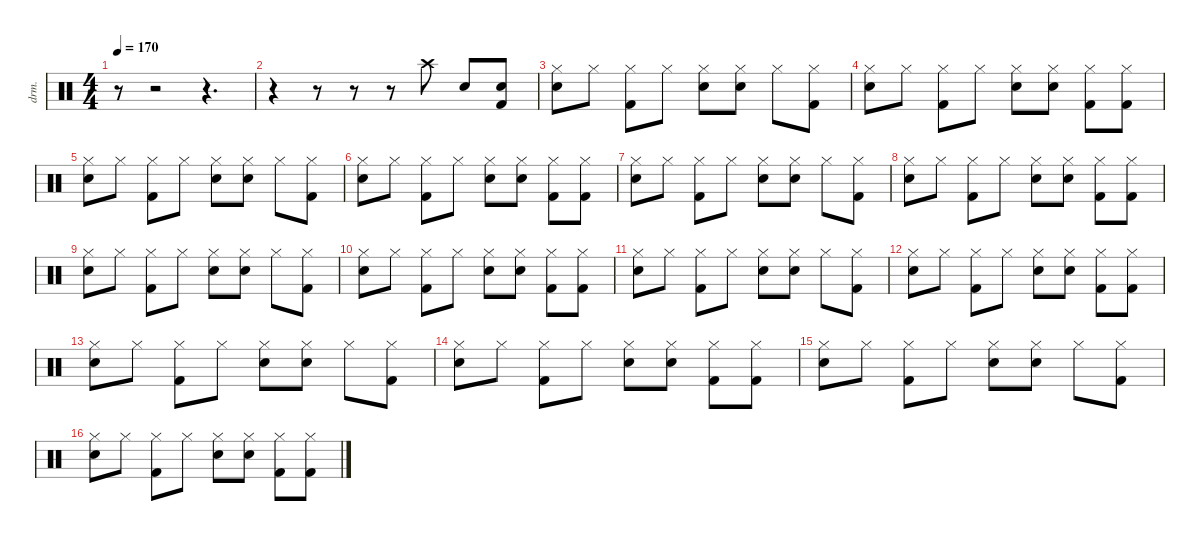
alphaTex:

\defaultSystemsLayout 4
\hideDynamics
\bracketExtendMode nobrackets
\otherSystemsTrackNameOrientation horizontal
\track ("Percussions" "drm.") {instrument percussion}
\staff {score}
\articulation defaults
\ts (4 4)
\tempo 170
\clef neutral
\ks c
r.8{dy f beam Down} r.2{beam Down} r.4{d beam Down} |
r.4{beam Down} r.8{beam Down} r.8{beam Down} r.8{beam Down} "Crash high (hit)".8{beam Down} "Snare (hit) 2".8{beam Up} ("Snare (hit) 2" "Kick (hit) 2").8{beam Up} |
("Hi-Hat (closed)" "Snare (hit) 2").8{beam Down} "Hi-Hat (closed)".8{beam Down} ("Hi-Hat (closed)" "Kick (hit) 2").8{beam Down} "Hi-Hat (closed)".8{beam Down} ("Hi-Hat (closed)" "Snare (hit) 2").8{beam Down} ("Hi-Hat (closed)" "Snare (hit) 2").8{beam Down} "Hi-Hat (closed)".8{beam Down} ("Hi-Hat (closed)" "Kick (hit) 2").8{beam Down} |
("Hi-Hat (closed)" "Snare (hit) 2").8{beam Down} "Hi-Hat (closed)".8{beam Down} ("Hi-Hat (closed)" "Kick (hit) 2").8{beam Down} "Hi-Hat (closed)".8{beam Down} ("Hi-Hat (closed)" "Snare (hit) 2").8{beam Down} ("Hi-Hat (closed)" "Snare (hit) 2").8{beam Down} ("Hi-Hat (closed)" "Kick (hit) 2").8{beam Down} ("Hi-Hat (closed)" "Kick (hit) 2").8{beam Down} |
("Hi-Hat (closed)" "Snare (hit) 2").8{beam Down} "Hi-Hat (closed)".8{beam Down} ("Hi-Hat (closed)" "Kick (hit) 2").8{beam Down} "Hi-Hat (closed)".8{beam Down} ("Hi-Hat (closed)" "Snare (hit) 2").8{beam Down} ("Hi-Hat (closed)" "Snare (hit) 2").8{beam Down} "Hi-Hat (closed)".8{beam Down} ("Hi-Hat (closed)" "Kick (hit) 2").8{beam Down} |
("Hi-Hat (closed)" "Snare (hit) 2").8{beam Down} "Hi-Hat (closed)".8{beam Down} ("Hi-Hat (closed)" "Kick (hit) 2").8{beam Down} "Hi-Hat (closed)".8{beam Down} ("Hi-Hat (closed)" "Snare (hit) 2").8{beam Down} ("Hi-Hat (closed)" "Snare (hit) 2").8{beam Down} ("Hi-Hat (closed)" "Kick (hit) 2").8{beam Down} ("Hi-Hat (closed)" "Kick (hit) 2").8{beam Down} |
("Hi-Hat (closed)" "Snare (hit) 2").8{beam Down} "Hi-Hat (closed)".8{beam Down} ("Hi-Hat (closed)" "Kick (hit) 2").8{beam Down} "Hi-Hat (closed)".8{beam Down} ("Hi-Hat (closed)" "Snare (hit) 2").8{beam Down} ("Hi-Hat (closed)" "Snare (hit) 2").8{beam Down} "Hi-Hat (closed)".8{beam Down} ("Hi-Hat (closed)" "Kick (hit) 2").8{beam Down} |
("Hi-Hat (closed)" "Snare (hit) 2").8{beam Down} "Hi-Hat (closed)".8{beam Down} ("Hi-Hat (closed)" "Kick (hit) 2").8{beam Down} "Hi-Hat (closed)".8{beam Down} ("Hi-Hat (closed)" "Snare (hit) 2").8{beam Down} ("Hi-Hat (closed)" "Snare (hit) 2").8{beam Down} ("Hi-Hat (closed)" "Kick (hit) 2").8{beam Down} ("Hi-Hat (closed)" "Kick (hit) 2").8{beam Down} |
("Hi-Hat (closed)" "Snare (hit) 2").8{beam Down} "Hi-Hat (closed)".8{beam Down} ("Hi-Hat (closed)" "Kick (hit) 2").8{beam Down} "Hi-Hat (closed)".8{beam Down} ("Hi-Hat (closed)" "Snare (hit) 2").8{beam Down} ("Hi-Hat (closed)" "Snare (hit) 2").8{beam Down} "Hi-Hat (closed)".8{beam Down} ("Hi-Hat (closed)" "Kick (hit) 2").8{beam Down} |
("Hi-Hat (closed)" "Snare (hit) 2").8{beam Down} "Hi-Hat (closed)".8{beam Down} ("Hi-Hat (closed)" "Kick (hit) 2").8{beam Down} "Hi-Hat (closed)".8{beam Down} ("Hi-Hat (closed)" "Snare (hit) 2").8{beam Down} ("Hi-Hat (closed)" "Snare (hit) 2").8{beam Down} ("Hi-Hat (closed)" "Kick (hit) 2").8{beam Down} ("Hi-Hat (closed)" "Kick (hit) 2").8{beam Down} |
("Hi-Hat (closed)" "Snare (hit) 2").8{beam Down} "Hi-Hat (closed)".8{beam Down} ("Hi-Hat (closed)" "Kick (hit) 2").8{beam Down} "Hi-Hat (closed)".8{beam Down} ("Hi-Hat (closed)" "Snare (hit) 2").8{beam Down} ("Hi-Hat (closed)" "Snare (hit) 2").8{beam Down} "Hi-Hat (closed)".8{beam Down} ("Hi-Hat (closed)" "Kick (hit) 2").8{beam Down} |
("Hi-Hat (closed)" "Snare (hit) 2").8{beam Down} "Hi-Hat (closed)".8{beam Down} ("Hi-Hat (closed)" "Kick (hit) 2").8{beam Down} "Hi-Hat (closed)".8{beam Down} ("Hi-Hat (closed)" "Snare (hit) 2").8{beam Down} ("Hi-Hat (closed)" "Snare (hit) 2").8{beam Down} ("Hi-Hat (closed)" "Kick (hit) 2").8{beam Down} ("Hi-Hat (closed)" "Kick (hit) 2").8{beam Down} |
("Hi-Hat (closed)" "Snare (hit) 2").8{beam Down} "Hi-Hat (closed)".8{beam Down} ("Hi-Hat (closed)" "Kick (hit) 2").8{beam Down} "Hi-Hat (closed)".8{beam Down} ("Hi-Hat (closed)" "Snare (hit) 2").8{beam Down} ("Hi-Hat (closed)" "Snare (hit) 2").8{beam Down} "Hi-Hat (closed)".8{beam Down} ("Hi-Hat (closed)" "Kick (hit) 2").8{beam Down} |
("Hi-Hat (closed)" "Snare (hit) 2").8{beam Down} "Hi-Hat (closed)".8{beam Down} ("Hi-Hat (closed)" "Kick (hit) 2").8{beam Down} "Hi-Hat (closed)".8{beam Down} ("Hi-Hat (closed)" "Snare (hit) 2").8{beam Down} ("Hi-Hat (closed)" "Snare (hit) 2").8{beam Down} ("Hi-Hat (closed)" "Kick (hit) 2").8{beam Down} ("Hi-Hat (closed)" "Kick (hit) 2").8{beam Down} |
("Hi-Hat (closed)" "Snare (hit) 2").8{beam Down} "Hi-Hat (closed)".8{beam Down} ("Hi-Hat (closed)" "Kick (hit) 2").8{beam Down} "Hi-Hat (closed)".8{beam Down} ("Hi-Hat (closed)" "Snare (hit) 2").8{beam Down} ("Hi-Hat (closed)" "Snare (hit) 2").8{beam Down} "Hi-Hat (closed)".8{beam Down} ("Hi-Hat (closed)" "Kick (hit) 2").8{beam Down} |
("Hi-Hat (closed)" "Snare (hit) 2").8{beam Down} "Hi-Hat (closed)".8{beam Down} ("Hi-Hat (closed)" "Kick (hit) 2").8{beam Down} "Hi-Hat (closed)".8{beam Down} ("Hi-Hat (closed)" "Snare (hit) 2").8{beam Down} ("Hi-Hat (closed)" "Snare (hit) 2").8{beam Down} ("Hi-Hat (closed)" "Kick (hit) 2").8{beam Down} ("Hi-Hat (closed)" "Kick (hit) 2").8{beam Down}
